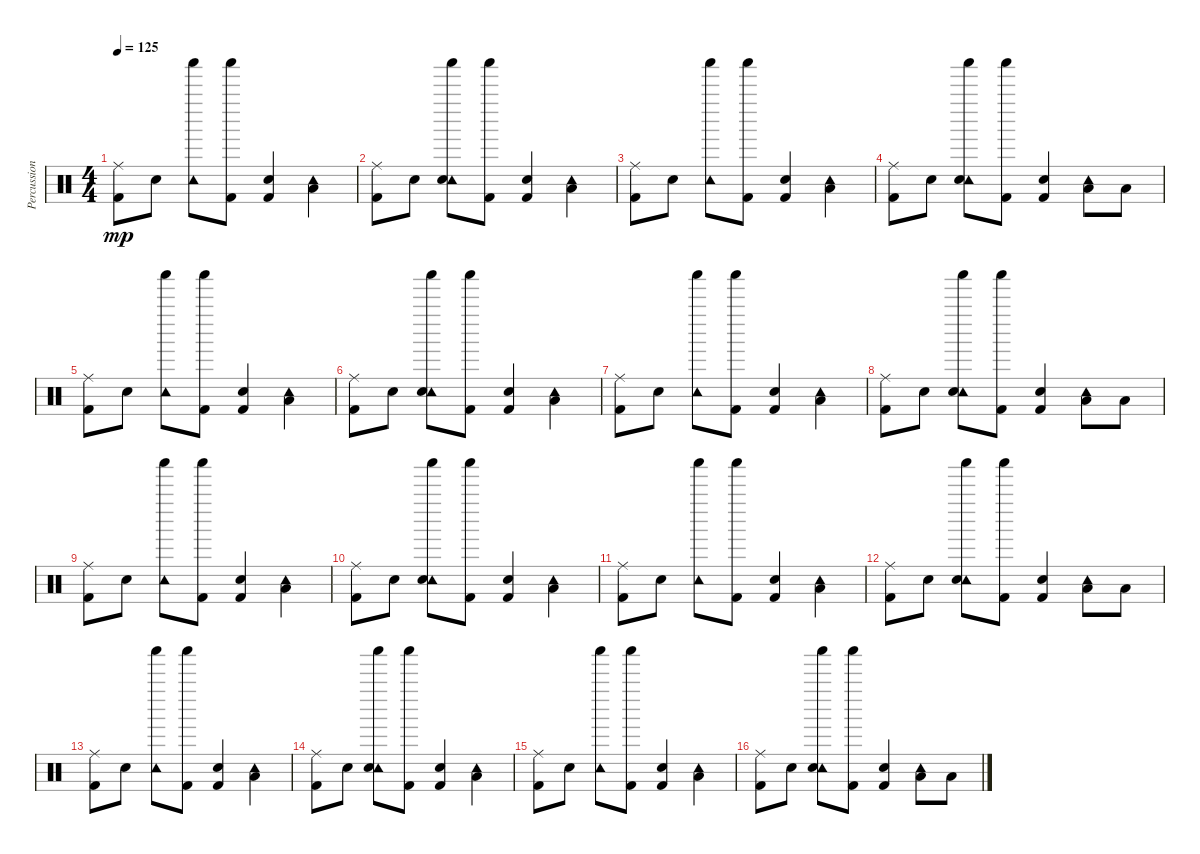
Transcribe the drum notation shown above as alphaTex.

\track ("Percussion" "Percussion") {instrument percussion}
\staff {score}
\articulation defaults
\ts (4 4)
\tempo 125
\clef neutral
\ks c
("Ride (middle)" "Kick (hit) 2").8{dy mp} "Snare (hit) 2".8 ("Shaker (hit)" "Tambourine (hit)").8 ("Shaker (hit)" "Kick (hit) 2").8 ("Kick (hit) 2" "Snare (hit) 2").4 ("Tambourine (hit)" "Low Tom (hit)").4 |
("Ride (middle)" "Kick (hit) 2").8 "Snare (hit) 2".8 ("Shaker (hit)" "Tambourine (hit)" "Snare (hit) 2").8 ("Shaker (hit)" "Kick (hit) 2").8 ("Kick (hit) 2" "Snare (hit) 2").4 ("Tambourine (hit)" "Low Tom (hit)").4 |
("Ride (middle)" "Kick (hit) 2").8 "Snare (hit) 2".8 ("Shaker (hit)" "Tambourine (hit)").8 ("Shaker (hit)" "Kick (hit) 2").8 ("Kick (hit) 2" "Snare (hit) 2").4 ("Tambourine (hit)" "Low Tom (hit)").4 |
("Ride (middle)" "Kick (hit) 2").8 "Snare (hit) 2".8 ("Shaker (hit)" "Tambourine (hit)" "Snare (hit) 2").8 ("Shaker (hit)" "Kick (hit) 2").8 ("Kick (hit) 2" "Snare (hit) 2").4 ("Tambourine (hit)" "Low Tom (hit)").8 "Low Tom (hit)".8 |
("Ride (middle)" "Kick (hit) 2").8 "Snare (hit) 2".8 ("Shaker (hit)" "Tambourine (hit)").8 ("Shaker (hit)" "Kick (hit) 2").8 ("Kick (hit) 2" "Snare (hit) 2").4 ("Tambourine (hit)" "Low Tom (hit)").4 |
("Ride (middle)" "Kick (hit) 2").8 "Snare (hit) 2".8 ("Shaker (hit)" "Tambourine (hit)" "Snare (hit) 2").8 ("Shaker (hit)" "Kick (hit) 2").8 ("Kick (hit) 2" "Snare (hit) 2").4 ("Tambourine (hit)" "Low Tom (hit)").4 |
("Ride (middle)" "Kick (hit) 2").8 "Snare (hit) 2".8 ("Shaker (hit)" "Tambourine (hit)").8 ("Shaker (hit)" "Kick (hit) 2").8 ("Kick (hit) 2" "Snare (hit) 2").4 ("Tambourine (hit)" "Low Tom (hit)").4 |
("Ride (middle)" "Kick (hit) 2").8 "Snare (hit) 2".8 ("Shaker (hit)" "Tambourine (hit)" "Snare (hit) 2").8 ("Shaker (hit)" "Kick (hit) 2").8 ("Kick (hit) 2" "Snare (hit) 2").4 ("Tambourine (hit)" "Low Tom (hit)").8 "Low Tom (hit)".8 |
("Ride (middle)" "Kick (hit) 2").8 "Snare (hit) 2".8 ("Shaker (hit)" "Tambourine (hit)").8 ("Shaker (hit)" "Kick (hit) 2").8 ("Kick (hit) 2" "Snare (hit) 2").4 ("Tambourine (hit)" "Low Tom (hit)").4 |
("Ride (middle)" "Kick (hit) 2").8 "Snare (hit) 2".8 ("Shaker (hit)" "Tambourine (hit)" "Snare (hit) 2").8 ("Shaker (hit)" "Kick (hit) 2").8 ("Kick (hit) 2" "Snare (hit) 2").4 ("Tambourine (hit)" "Low Tom (hit)").4 |
("Ride (middle)" "Kick (hit) 2").8 "Snare (hit) 2".8 ("Shaker (hit)" "Tambourine (hit)").8 ("Shaker (hit)" "Kick (hit) 2").8 ("Kick (hit) 2" "Snare (hit) 2").4 ("Tambourine (hit)" "Low Tom (hit)").4 |
("Ride (middle)" "Kick (hit) 2").8 "Snare (hit) 2".8 ("Shaker (hit)" "Tambourine (hit)" "Snare (hit) 2").8 ("Shaker (hit)" "Kick (hit) 2").8 ("Kick (hit) 2" "Snare (hit) 2").4 ("Tambourine (hit)" "Low Tom (hit)").8 "Low Tom (hit)".8 |
("Ride (middle)" "Kick (hit) 2").8 "Snare (hit) 2".8 ("Shaker (hit)" "Tambourine (hit)").8 ("Shaker (hit)" "Kick (hit) 2").8 ("Kick (hit) 2" "Snare (hit) 2").4 ("Tambourine (hit)" "Low Tom (hit)").4 |
("Ride (middle)" "Kick (hit) 2").8 "Snare (hit) 2".8 ("Shaker (hit)" "Tambourine (hit)" "Snare (hit) 2").8 ("Shaker (hit)" "Kick (hit) 2").8 ("Kick (hit) 2" "Snare (hit) 2").4 ("Tambourine (hit)" "Low Tom (hit)").4 |
("Ride (middle)" "Kick (hit) 2").8 "Snare (hit) 2".8 ("Shaker (hit)" "Tambourine (hit)").8 ("Shaker (hit)" "Kick (hit) 2").8 ("Kick (hit) 2" "Snare (hit) 2").4 ("Tambourine (hit)" "Low Tom (hit)").4 |
("Ride (middle)" "Kick (hit) 2").8 "Snare (hit) 2".8 ("Shaker (hit)" "Tambourine (hit)" "Snare (hit) 2").8 ("Shaker (hit)" "Kick (hit) 2").8 ("Kick (hit) 2" "Snare (hit) 2").4 ("Tambourine (hit)" "Low Tom (hit)").8 "Low Tom (hit)".8
